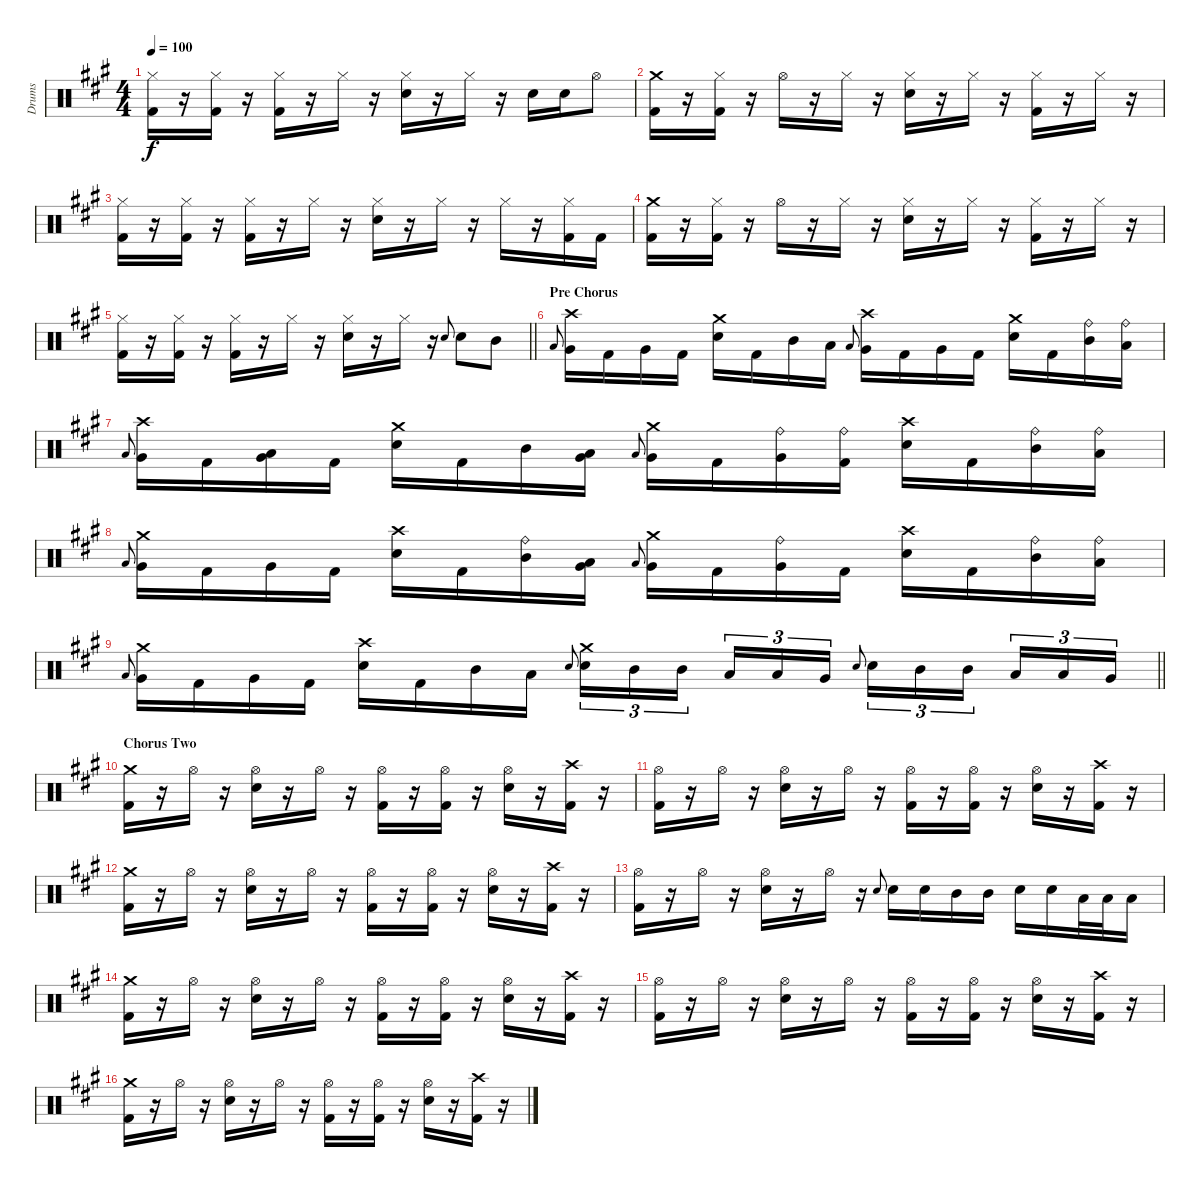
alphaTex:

\track ("Drums" "Drums") {instrument percussion}
\staff {score}
\articulation defaults
\ts (4 4)
\tempo 100
\clef neutral
\ks a
("Hi-Hat (closed)" "Kick (hit) 2").16{dy f} r.16 ("Hi-Hat (closed)" "Kick (hit) 2").16 r.16 ("Hi-Hat (closed)" "Kick (hit) 2").16 r.16 "Hi-Hat (closed)".16 r.16 ("Hi-Hat (closed)" "Snare (hit) 2").16 r.16 "Hi-Hat (closed)".16 r.16 "Snare (hit) 2".16 "Snare (hit) 2".16 "Hi-Hat (open)".8 |
("Crash medium (hit)" "Kick (hit) 2").16 r.16 ("Hi-Hat (closed)" "Kick (hit) 2").16 r.16 "Hi-Hat (open)".16 r.16 "Hi-Hat (closed)".16 r.16 ("Hi-Hat (closed)" "Snare (hit) 2").16 r.16 "Hi-Hat (closed)".16 r.16 ("Hi-Hat (closed)" "Kick (hit) 2").16 r.16 "Hi-Hat (closed)".16 r.16 |
("Hi-Hat (closed)" "Kick (hit) 2").16 r.16 ("Hi-Hat (closed)" "Kick (hit) 2").16 r.16 ("Hi-Hat (closed)" "Kick (hit) 2").16 r.16 "Hi-Hat (closed)".16 r.16 ("Hi-Hat (closed)" "Snare (hit) 2").16 r.16 "Hi-Hat (closed)".16 r.16 "Hi-Hat (closed)".16 r.16 ("Hi-Hat (closed)" "Kick (hit) 2").16 "Kick (hit) 2".16 |
("Crash medium (hit)" "Kick (hit) 2").16 r.16 ("Hi-Hat (closed)" "Kick (hit) 2").16 r.16 "Hi-Hat (open)".16 r.16 "Hi-Hat (closed)".16 r.16 ("Hi-Hat (closed)" "Snare (hit) 2").16 r.16 "Hi-Hat (closed)".16 r.16 ("Hi-Hat (closed)" "Kick (hit) 2").16 r.16 "Hi-Hat (closed)".16 r.16 |
\barLineRight lightlight
("Hi-Hat (closed)" "Kick (hit) 2").16 r.16 ("Hi-Hat (closed)" "Kick (hit) 2").16 r.16 ("Hi-Hat (closed)" "Kick (hit) 2").16 r.16 "Hi-Hat (closed)".16 r.16 ("Hi-Hat (closed)" "Snare (hit) 2").16 r.16 "Hi-Hat (closed)".16 r.16 "Snare (hit) 2".8{gr onbeat} "Snare (hit) 2".8 "Mid Tom (hit)".8 |
\section ("" "Pre Chorus")
"Low Floor Tom (hit)".8{gr onbeat} ("Crash high (hit)" "Very Low Tom (hit)").16 "Kick (hit) 2".16 "Very Low Tom (hit)".16 "Kick (hit) 2".16 ("Crash medium (hit)" "Snare (hit) 2").16 "Kick (hit) 2".16 "Mid Tom (hit)".16 "Low Tom (hit)".16 "Low Floor Tom (hit)".8{gr onbeat} ("Crash high (hit)" "Very Low Tom (hit)").16 "Kick (hit) 2".16 "Very Low Tom (hit)".16 "Kick (hit) 2".16 ("Crash medium (hit)" "Snare (hit) 2").16 "Kick (hit) 2".16 ("Ride (bell)" "Mid Tom (hit)").16 ("Ride (bell)" "Low Tom (hit)").16 |
"Low Floor Tom (hit)".8{gr onbeat} ("Crash high (hit)" "Very Low Tom (hit)").16 "Kick (hit) 2".16 ("Low Tom (hit)" "Very Low Tom (hit)").16 "Kick (hit) 2".16 ("Crash medium (hit)" "Snare (hit) 2").16 "Kick (hit) 2".16 "Mid Tom (hit)".16 ("Very Low Tom (hit)" "Low Tom (hit)").16 "Low Floor Tom (hit)".8{gr onbeat} ("Crash medium (hit)" "Very Low Tom (hit)").16 "Kick (hit) 2".16 ("Ride (bell)" "Very Low Tom (hit)").16 ("Ride (bell)" "Kick (hit) 2").16 ("Crash high (hit)" "Snare (hit) 2").16 "Kick (hit) 2".16 ("Ride (bell)" "Mid Tom (hit)").16 ("Ride (bell)" "Low Tom (hit)").16 |
"Low Floor Tom (hit)".8{gr onbeat} ("Crash medium (hit)" "Very Low Tom (hit)").16 "Kick (hit) 2".16 "Very Low Tom (hit)".16 "Kick (hit) 2".16 ("Crash high (hit)" "Snare (hit) 2").16 "Kick (hit) 2".16 ("Ride (bell)" "Mid Tom (hit)").16 ("Very Low Tom (hit)" "Low Tom (hit)").16 "Low Floor Tom (hit)".8{gr onbeat} ("Crash medium (hit)" "Very Low Tom (hit)").16 "Kick (hit) 2".16 ("Ride (bell)" "Very Low Tom (hit)").16 "Kick (hit) 2".16 ("Crash high (hit)" "Snare (hit) 2").16 "Kick (hit) 2".16 ("Ride (bell)" "Mid Tom (hit)").16 ("Ride (bell)" "Low Tom (hit)").16 |
\barLineRight lightlight "Low Floor Tom (hit)".8{gr onbeat}
("Crash medium (hit)" "Very Low Tom (hit)").16 "Kick (hit) 2".16 "Very Low Tom (hit)".16 "Kick (hit) 2".16 ("Crash high (hit)" "Snare (hit) 2").16 "Kick (hit) 2".16 "Mid Tom (hit)".16 "Low Tom (hit)".16 "Snare (hit) 2".8{gr onbeat} ("Crash medium (hit)" "Snare (hit) 2").16{tu (3 2)} "Mid Tom (hit)".16{tu (3 2)} "Mid Tom (hit)".16{tu (3 2) beam splitsecondary} "Low Tom (hit)".16{tu (3 2)} "Low Tom (hit)".16{tu (3 2)} "Very Low Tom (hit)".16{tu (3 2)} "Snare (hit) 2".8{gr onbeat} "Snare (hit) 2".16{tu (3 2)} "Mid Tom (hit)".16{tu (3 2)} "Mid Tom (hit)".16{tu (3 2) beam splitsecondary} "Low Tom (hit)".16{tu (3 2)} "Low Tom (hit)".16{tu (3 2)} "Very Low Tom (hit)".16{tu (3 2)} |
\section ("" "Chorus Two")
("Crash medium (hit)" "Kick (hit) 2").16 r.16 "Hi-Hat (open)".16 r.16 ("Hi-Hat (open)" "Snare (hit) 2").16 r.16 "Hi-Hat (open)".16 r.16 ("Hi-Hat (open)" "Kick (hit) 2").16 r.16 ("Hi-Hat (open)" "Kick (hit) 2").16 r.16 ("Hi-Hat (open)" "Snare (hit) 2").16 r.16 ("Crash high (hit)" "Kick (hit) 2").16 r.16 |
("Hi-Hat (open)" "Kick (hit) 2").16 r.16 "Hi-Hat (open)".16 r.16 ("Hi-Hat (open)" "Snare (hit) 2").16 r.16 "Hi-Hat (open)".16 r.16 ("Hi-Hat (open)" "Kick (hit) 2").16 r.16 ("Hi-Hat (open)" "Kick (hit) 2").16 r.16 ("Hi-Hat (open)" "Snare (hit) 2").16 r.16 ("Crash high (hit)" "Kick (hit) 2").16 r.16 |
("Crash medium (hit)" "Kick (hit) 2").16 r.16 "Hi-Hat (open)".16 r.16 ("Hi-Hat (open)" "Snare (hit) 2").16 r.16 "Hi-Hat (open)".16 r.16 ("Hi-Hat (open)" "Kick (hit) 2").16 r.16 ("Hi-Hat (open)" "Kick (hit) 2").16 r.16 ("Hi-Hat (open)" "Snare (hit) 2").16 r.16 ("Crash high (hit)" "Kick (hit) 2").16 r.16 |
("Hi-Hat (open)" "Kick (hit) 2").16 r.16 "Hi-Hat (open)".16 r.16 ("Hi-Hat (open)" "Snare (hit) 2").16 r.16 "Hi-Hat (open)".16 r.16 "Snare (hit) 2".8{gr onbeat} "Snare (hit) 2".16 "Snare (hit) 2".16 "Mid Tom (hit)".16 "Mid Tom (hit)".16 "Snare (hit) 2".16 "Snare (hit) 2".16 "Low Tom (hit)".32 "Low Tom (hit)".32 "Low Tom (hit)".16 |
("Crash medium (hit)" "Kick (hit) 2").16 r.16 "Hi-Hat (open)".16 r.16 ("Hi-Hat (open)" "Snare (hit) 2").16 r.16 "Hi-Hat (open)".16 r.16 ("Hi-Hat (open)" "Kick (hit) 2").16 r.16 ("Hi-Hat (open)" "Kick (hit) 2").16 r.16 ("Hi-Hat (open)" "Snare (hit) 2").16 r.16 ("Crash high (hit)" "Kick (hit) 2").16 r.16 |
("Hi-Hat (open)" "Kick (hit) 2").16 r.16 "Hi-Hat (open)".16 r.16 ("Hi-Hat (open)" "Snare (hit) 2").16 r.16 "Hi-Hat (open)".16 r.16 ("Hi-Hat (open)" "Kick (hit) 2").16 r.16 ("Hi-Hat (open)" "Kick (hit) 2").16 r.16 ("Hi-Hat (open)" "Snare (hit) 2").16 r.16 ("Crash high (hit)" "Kick (hit) 2").16 r.16 |
("Crash medium (hit)" "Kick (hit) 2").16 r.16 "Hi-Hat (open)".16 r.16 ("Hi-Hat (open)" "Snare (hit) 2").16 r.16 "Hi-Hat (open)".16 r.16 ("Hi-Hat (open)" "Kick (hit) 2").16 r.16 ("Hi-Hat (open)" "Kick (hit) 2").16 r.16 ("Hi-Hat (open)" "Snare (hit) 2").16 r.16 ("Crash high (hit)" "Kick (hit) 2").16 r.16
